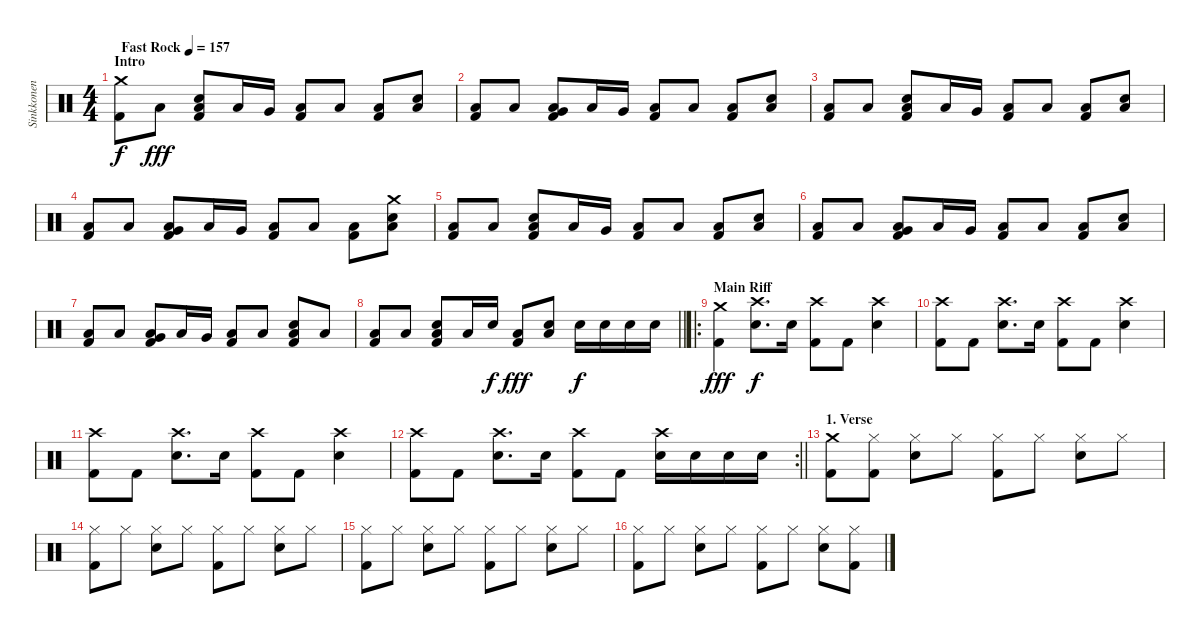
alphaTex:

\track ("Sinkkonen" "Sinkkonen") {instrument percussion}
\staff {score}
\articulation defaults
\ts (4 4)
\section ("" "Intro")
\tempo (157 "Fast Rock")
\clef neutral
\ks c
("Kick (hit) 2" "Crash medium (hit)").8{dy f} "Low Floor Tom (hit)".8{dy fff} ("Kick (hit) 2" "Low Floor Tom (hit)" "Snare (hit) 2").8 "Low Tom (hit)".16 "Very Low Tom (hit)".16 ("Kick (hit) 2" "Low Floor Tom (hit)").8 "Low Floor Tom (hit)".8 ("Kick (hit) 2" "Low Floor Tom (hit)").8 ("Low Floor Tom (hit)" "Snare (hit) 2").8 |
("Kick (hit) 2" "Low Floor Tom (hit)").8 "Low Floor Tom (hit)".8 ("Kick (hit) 2" "Very Low Tom (hit)" "Low Floor Tom (hit)").8 "Low Tom (hit)".16 "Very Low Tom (hit)".16 ("Kick (hit) 2" "Low Floor Tom (hit)").8 "Low Floor Tom (hit)".8 ("Kick (hit) 2" "Low Floor Tom (hit)").8 ("Low Floor Tom (hit)" "Snare (hit) 2").8 |
("Kick (hit) 2" "Low Floor Tom (hit)").8 "Low Floor Tom (hit)".8 ("Kick (hit) 2" "Low Floor Tom (hit)" "Snare (hit) 2").8 "Low Tom (hit)".16 "Very Low Tom (hit)".16 ("Kick (hit) 2" "Low Floor Tom (hit)").8 "Low Floor Tom (hit)".8 ("Kick (hit) 2" "Low Floor Tom (hit)").8 ("Low Floor Tom (hit)" "Snare (hit) 2").8 |
("Kick (hit) 2" "Low Floor Tom (hit)").8 "Low Floor Tom (hit)".8 ("Kick (hit) 2" "Very Low Tom (hit)" "Low Floor Tom (hit)").8 "Low Tom (hit)".16 "Very Low Tom (hit)".16 ("Kick (hit) 2" "Low Floor Tom (hit)").8 "Low Floor Tom (hit)".8 ("Kick (hit) 2" "Low Floor Tom (hit)").8 ("Crash medium (hit)" "Low Floor Tom (hit)" "Snare (hit) 2").8 |
("Kick (hit) 2" "Low Floor Tom (hit)").8 "Low Floor Tom (hit)".8 ("Kick (hit) 2" "Low Floor Tom (hit)" "Snare (hit) 2").8 "Low Tom (hit)".16 "Very Low Tom (hit)".16 ("Kick (hit) 2" "Low Floor Tom (hit)").8 "Low Floor Tom (hit)".8 ("Kick (hit) 2" "Low Floor Tom (hit)").8 ("Low Floor Tom (hit)" "Snare (hit) 2").8 |
("Kick (hit) 2" "Low Floor Tom (hit)").8 "Low Floor Tom (hit)".8 ("Kick (hit) 2" "Very Low Tom (hit)" "Low Floor Tom (hit)").8 "Low Tom (hit)".16 "Very Low Tom (hit)".16 ("Kick (hit) 2" "Low Floor Tom (hit)").8 "Low Floor Tom (hit)".8 ("Kick (hit) 2" "Low Floor Tom (hit)").8 ("Low Floor Tom (hit)" "Snare (hit) 2").8 |
("Kick (hit) 2" "Low Floor Tom (hit)").8 "Low Floor Tom (hit)".8 ("Kick (hit) 2" "Very Low Tom (hit)" "Low Floor Tom (hit)").8 "Low Tom (hit)".16 "Very Low Tom (hit)".16 ("Kick (hit) 2" "Low Floor Tom (hit)").8 "Low Floor Tom (hit)".8 ("Kick (hit) 2" "Low Floor Tom (hit)" "Snare (hit) 2").8 "Low Floor Tom (hit)".8 |
\barLineRight lightlight
("Kick (hit) 2" "Low Floor Tom (hit)").8 "Low Floor Tom (hit)".8 ("Kick (hit) 2" "Low Floor Tom (hit)" "Snare (hit) 2").8 "Low Tom (hit)".16 "Snare (hit) 2".16{dy f} ("Kick (hit) 2" "Low Floor Tom (hit)").8{dy fff} ("Low Floor Tom (hit)" "Snare (hit) 2").8 "Snare (hit) 2".16{dy f} "Snare (hit) 2".16 "Snare (hit) 2".16 "Snare (hit) 2".16 |
\ro
\section ("" "Main Riff")
("Kick (hit) 2" "Crash medium (hit)").4{dy fff} ("Crash high (hit)" "Snare (hit) 2").8{d dy f} "Snare (hit) 2".16 ("Kick (hit) 2" "Crash high (hit)").8 "Kick (hit) 2".8 ("Crash high (hit)" "Snare (hit) 2").4 |
("Kick (hit) 2" "Crash high (hit)").8 "Kick (hit) 2".8 ("Crash high (hit)" "Snare (hit) 2").8{d} "Snare (hit) 2".16 ("Kick (hit) 2" "Crash high (hit)").8 "Kick (hit) 2".8 ("Crash high (hit)" "Snare (hit) 2").4 |
("Kick (hit) 2" "Crash high (hit)").8 "Kick (hit) 2".8 ("Crash high (hit)" "Snare (hit) 2").8{d} "Snare (hit) 2".16 ("Kick (hit) 2" "Crash high (hit)").8 "Kick (hit) 2".8 ("Crash high (hit)" "Snare (hit) 2").4 |
\rc 2
\barLineRight lightlight
("Kick (hit) 2" "Crash high (hit)").8 "Kick (hit) 2".8 ("Crash high (hit)" "Snare (hit) 2").8{d} "Snare (hit) 2".16 ("Kick (hit) 2" "Crash high (hit)").8 "Kick (hit) 2".8 ("Crash high (hit)" "Snare (hit) 2").16 "Snare (hit) 2".16 "Snare (hit) 2".16 "Snare (hit) 2".16 |
\section ("" "1. Verse")
("Kick (hit) 2" "Crash medium (hit)").8 ("Kick (hit) 2" "Hi-Hat (closed)").8 ("Hi-Hat (closed)" "Snare (hit) 2").8 "Hi-Hat (closed)".8 ("Kick (hit) 2" "Hi-Hat (closed)").8 "Hi-Hat (closed)".8 ("Hi-Hat (closed)" "Snare (hit) 2").8 "Hi-Hat (closed)".8 |
("Kick (hit) 2" "Hi-Hat (closed)").8 "Hi-Hat (closed)".8 ("Snare (hit) 2" "Hi-Hat (closed)").8 "Hi-Hat (closed)".8 ("Kick (hit) 2" "Hi-Hat (closed)").8 "Hi-Hat (closed)".8 ("Snare (hit) 2" "Hi-Hat (closed)").8 "Hi-Hat (closed)".8 |
("Kick (hit) 2" "Hi-Hat (closed)").8 "Hi-Hat (closed)".8 ("Snare (hit) 2" "Hi-Hat (closed)").8 "Hi-Hat (closed)".8 ("Kick (hit) 2" "Hi-Hat (closed)").8 "Hi-Hat (closed)".8 ("Snare (hit) 2" "Hi-Hat (closed)").8 "Hi-Hat (closed)".8 |
("Kick (hit) 2" "Hi-Hat (closed)").8 "Hi-Hat (closed)".8 ("Snare (hit) 2" "Hi-Hat (closed)").8 "Hi-Hat (closed)".8 ("Kick (hit) 2" "Hi-Hat (closed)").8 "Hi-Hat (closed)".8 ("Snare (hit) 2" "Hi-Hat (closed)").8 ("Kick (hit) 2" "Hi-Hat (closed)").8
